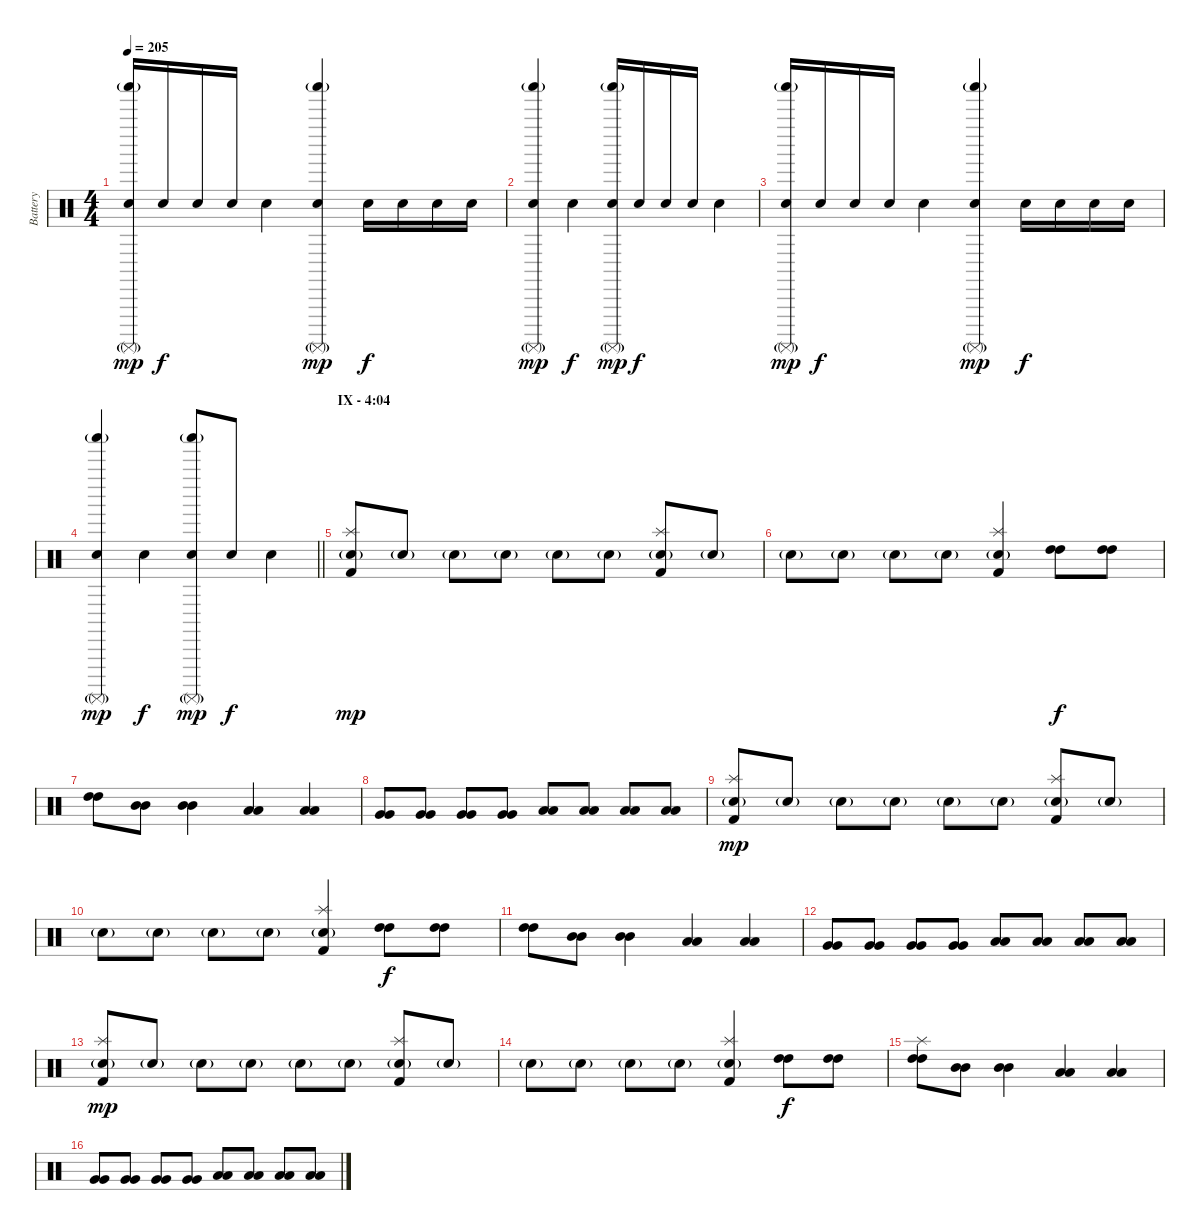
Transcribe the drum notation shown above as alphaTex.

\track ("Battery" "Battery") {instrument percussion}
\staff {score}
\articulation defaults
\ts (4 4)
\tempo 205
\clef neutral
\ks c
("Shaker (hit)"{g} "Electric Snare (hit)" "Surdo (mute)"{g}).16{dy mp} "Electric Snare (hit)".16{dy f} "Electric Snare (hit)".16 "Electric Snare (hit)".16 "Electric Snare (hit)".4 ("Shaker (hit)"{g} "Electric Snare (hit)" "Surdo (mute)"{g}).4{dy mp} "Electric Snare (hit)".16{dy f} "Electric Snare (hit)".16 "Electric Snare (hit)".16 "Electric Snare (hit)".16 |
("Shaker (hit)"{g} "Electric Snare (hit)" "Surdo (mute)"{g}).4{dy mp} "Electric Snare (hit)".4{dy f} ("Shaker (hit)"{g} "Electric Snare (hit)" "Surdo (mute)"{g}).16{dy mp} "Electric Snare (hit)".16{dy f} "Electric Snare (hit)".16 "Electric Snare (hit)".16 "Electric Snare (hit)".4 |
("Shaker (hit)"{g} "Electric Snare (hit)" "Surdo (mute)"{g}).16{dy mp} "Electric Snare (hit)".16{dy f} "Electric Snare (hit)".16 "Electric Snare (hit)".16 "Electric Snare (hit)".4 ("Shaker (hit)"{g} "Electric Snare (hit)" "Surdo (mute)"{g}).4{dy mp} "Electric Snare (hit)".16{dy f} "Electric Snare (hit)".16 "Electric Snare (hit)".16 "Electric Snare (hit)".16 |
\barLineRight lightlight
("Shaker (hit)"{g} "Electric Snare (hit)" "Surdo (mute)"{g}).4{dy mp} "Electric Snare (hit)".4{dy f} ("Shaker (hit)"{g} "Electric Snare (hit)" "Surdo (mute)"{g}).8{dy mp} "Electric Snare (hit)".8{dy f} "Electric Snare (hit)".4 |
\section ("" "IX - 4:04")
("Splash (hit)" "Electric Snare (hit)"{g} "Kick (hit) 2").8{dy mp} "Electric Snare (hit)"{g}.8 "Electric Snare (hit)"{g}.8 "Electric Snare (hit)"{g}.8 "Electric Snare (hit)"{g}.8 "Electric Snare (hit)"{g}.8 ("Splash (hit)" "Electric Snare (hit)"{g} "Kick (hit) 2").8 "Electric Snare (hit)"{g}.8 |
"Electric Snare (hit)"{g}.8 "Electric Snare (hit)"{g}.8 "Electric Snare (hit)"{g}.8 "Electric Snare (hit)"{g}.8 ("Splash (hit)" "Electric Snare (hit)"{g} "Kick (hit) 2").4 ("High Tom (hit)" "High Tom (hit)").8{dy f} ("High Tom (hit)" "High Tom (hit)").8 |
("High Tom (hit)" "High Tom (hit)").8 ("Mid Tom (hit)" "Mid Tom (hit)").8 ("Mid Tom (hit)" "Mid Tom (hit)").4 ("Low Tom (hit)" "Low Tom (hit)").4 ("Low Tom (hit)" "Low Tom (hit)").4 |
("Very Low Tom (hit)" "Very Low Tom (hit)").8 ("Very Low Tom (hit)" "Very Low Tom (hit)").8 ("Very Low Tom (hit)" "Very Low Tom (hit)").8 ("Very Low Tom (hit)" "Very Low Tom (hit)").8 ("Low Floor Tom (hit)" "Low Floor Tom (hit)").8 ("Low Floor Tom (hit)" "Low Floor Tom (hit)").8 ("Low Floor Tom (hit)" "Low Floor Tom (hit)").8 ("Low Floor Tom (hit)" "Low Floor Tom (hit)").8 |
("Splash (hit)" "Electric Snare (hit)"{g} "Kick (hit) 2").8{dy mp} "Electric Snare (hit)"{g}.8 "Electric Snare (hit)"{g}.8 "Electric Snare (hit)"{g}.8 "Electric Snare (hit)"{g}.8 "Electric Snare (hit)"{g}.8 ("Splash (hit)" "Electric Snare (hit)"{g} "Kick (hit) 2").8 "Electric Snare (hit)"{g}.8 |
"Electric Snare (hit)"{g}.8 "Electric Snare (hit)"{g}.8 "Electric Snare (hit)"{g}.8 "Electric Snare (hit)"{g}.8 ("Splash (hit)" "Electric Snare (hit)"{g} "Kick (hit) 2").4 ("High Tom (hit)" "High Tom (hit)").8{dy f} ("High Tom (hit)" "High Tom (hit)").8 |
("High Tom (hit)" "High Tom (hit)").8 ("Mid Tom (hit)" "Mid Tom (hit)").8 ("Mid Tom (hit)" "Mid Tom (hit)").4 ("Low Tom (hit)" "Low Tom (hit)").4 ("Low Tom (hit)" "Low Tom (hit)").4 |
("Very Low Tom (hit)" "Very Low Tom (hit)").8 ("Very Low Tom (hit)" "Very Low Tom (hit)").8 ("Very Low Tom (hit)" "Very Low Tom (hit)").8 ("Very Low Tom (hit)" "Very Low Tom (hit)").8 ("Low Floor Tom (hit)" "Low Floor Tom (hit)").8 ("Low Floor Tom (hit)" "Low Floor Tom (hit)").8 ("Low Floor Tom (hit)" "Low Floor Tom (hit)").8 ("Low Floor Tom (hit)" "Low Floor Tom (hit)").8 |
("Splash (hit)" "Electric Snare (hit)"{g} "Kick (hit) 2").8{dy mp} "Electric Snare (hit)"{g}.8 "Electric Snare (hit)"{g}.8 "Electric Snare (hit)"{g}.8 "Electric Snare (hit)"{g}.8 "Electric Snare (hit)"{g}.8 ("Splash (hit)" "Electric Snare (hit)"{g} "Kick (hit) 2").8 "Electric Snare (hit)"{g}.8 |
"Electric Snare (hit)"{g}.8 "Electric Snare (hit)"{g}.8 "Electric Snare (hit)"{g}.8 "Electric Snare (hit)"{g}.8 ("Splash (hit)" "Electric Snare (hit)"{g} "Kick (hit) 2").4 ("High Tom (hit)" "High Tom (hit)").8{dy f} ("High Tom (hit)" "High Tom (hit)").8 |
("Splash (hit)" "High Tom (hit)" "High Tom (hit)").8 ("Mid Tom (hit)" "Mid Tom (hit)").8 ("Mid Tom (hit)" "Mid Tom (hit)").4 ("Low Tom (hit)" "Low Tom (hit)").4 ("Low Tom (hit)" "Low Tom (hit)").4 |
("Very Low Tom (hit)" "Very Low Tom (hit)").8 ("Very Low Tom (hit)" "Very Low Tom (hit)").8 ("Very Low Tom (hit)" "Very Low Tom (hit)").8 ("Very Low Tom (hit)" "Very Low Tom (hit)").8 ("Low Floor Tom (hit)" "Low Floor Tom (hit)").8 ("Low Floor Tom (hit)" "Low Floor Tom (hit)").8 ("Low Floor Tom (hit)" "Low Floor Tom (hit)").8 ("Low Floor Tom (hit)" "Low Floor Tom (hit)").8
